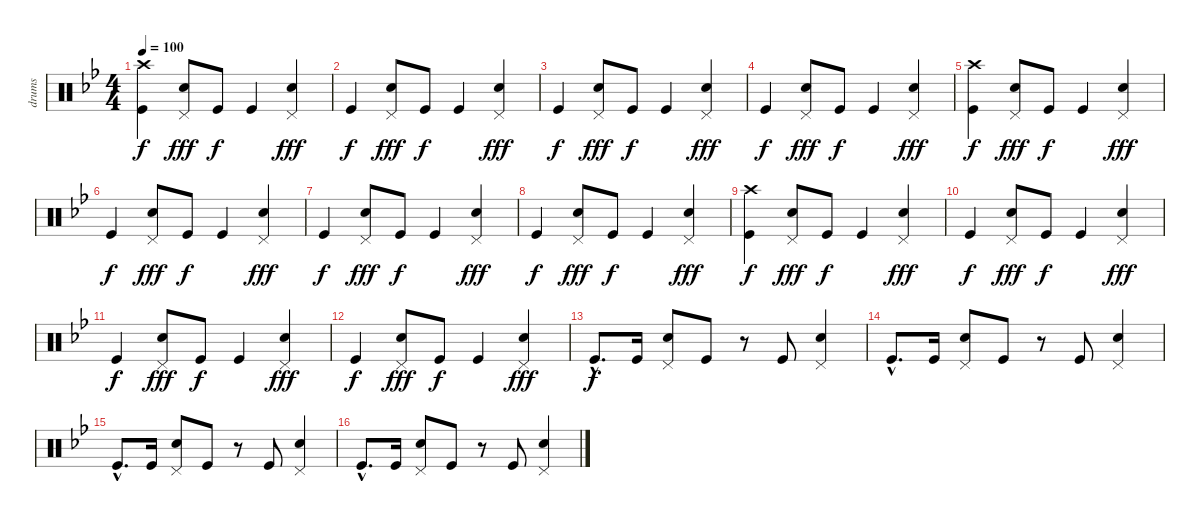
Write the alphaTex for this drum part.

\track ("drums" "drums") {instrument percussion}
\staff {score}
\articulation defaults
\ts (4 4)
\tempo 100
\clef neutral
\ks gminor
("Crash high (hit)" "Kick (hit)").4{dy f} ("Pedal Hi-Hat (hit)" "Electric Snare (hit)").8{dy fff} "Kick (hit)".8{dy f} "Kick (hit)".4 ("Pedal Hi-Hat (hit)" "Electric Snare (hit)").4{dy fff} |
"Kick (hit)".4{dy f} ("Pedal Hi-Hat (hit)" "Electric Snare (hit)").8{dy fff} "Kick (hit)".8{dy f} "Kick (hit)".4 ("Pedal Hi-Hat (hit)" "Electric Snare (hit)").4{dy fff} |
"Kick (hit)".4{dy f} ("Pedal Hi-Hat (hit)" "Electric Snare (hit)").8{dy fff} "Kick (hit)".8{dy f} "Kick (hit)".4 ("Pedal Hi-Hat (hit)" "Electric Snare (hit)").4{dy fff} |
"Kick (hit)".4{dy f} ("Pedal Hi-Hat (hit)" "Electric Snare (hit)").8{dy fff} "Kick (hit)".8{dy f} "Kick (hit)".4 ("Pedal Hi-Hat (hit)" "Electric Snare (hit)").4{dy fff} |
("Crash high (hit)" "Kick (hit)").4{dy f} ("Pedal Hi-Hat (hit)" "Electric Snare (hit)").8{dy fff} "Kick (hit)".8{dy f} "Kick (hit)".4 ("Pedal Hi-Hat (hit)" "Electric Snare (hit)").4{dy fff} |
"Kick (hit)".4{dy f} ("Pedal Hi-Hat (hit)" "Electric Snare (hit)").8{dy fff} "Kick (hit)".8{dy f} "Kick (hit)".4 ("Pedal Hi-Hat (hit)" "Electric Snare (hit)").4{dy fff} |
"Kick (hit)".4{dy f} ("Pedal Hi-Hat (hit)" "Electric Snare (hit)").8{dy fff} "Kick (hit)".8{dy f} "Kick (hit)".4 ("Pedal Hi-Hat (hit)" "Electric Snare (hit)").4{dy fff} |
"Kick (hit)".4{dy f} ("Pedal Hi-Hat (hit)" "Electric Snare (hit)").8{dy fff} "Kick (hit)".8{dy f} "Kick (hit)".4 ("Pedal Hi-Hat (hit)" "Electric Snare (hit)").4{dy fff} |
("Crash high (hit)" "Kick (hit)").4{dy f} ("Pedal Hi-Hat (hit)" "Electric Snare (hit)").8{dy fff} "Kick (hit)".8{dy f} "Kick (hit)".4 ("Pedal Hi-Hat (hit)" "Electric Snare (hit)").4{dy fff} |
"Kick (hit)".4{dy f} ("Pedal Hi-Hat (hit)" "Electric Snare (hit)").8{dy fff} "Kick (hit)".8{dy f} "Kick (hit)".4 ("Pedal Hi-Hat (hit)" "Electric Snare (hit)").4{dy fff} |
"Kick (hit)".4{dy f} ("Pedal Hi-Hat (hit)" "Electric Snare (hit)").8{dy fff} "Kick (hit)".8{dy f} "Kick (hit)".4 ("Pedal Hi-Hat (hit)" "Electric Snare (hit)").4{dy fff} |
"Kick (hit)".4{dy f} ("Pedal Hi-Hat (hit)" "Electric Snare (hit)").8{dy fff} "Kick (hit)".8{dy f} "Kick (hit)".4 ("Pedal Hi-Hat (hit)" "Electric Snare (hit)").4{dy fff} |
"Kick (hit)"{hac}.8{d dy f} "Kick (hit)".16 ("Pedal Hi-Hat (hit)" "Electric Snare (hit)").8 "Kick (hit)".8 r.8 "Kick (hit)".8 ("Pedal Hi-Hat (hit)" "Electric Snare (hit)").4 |
"Kick (hit)"{hac}.8{d} "Kick (hit)".16 ("Pedal Hi-Hat (hit)" "Electric Snare (hit)").8 "Kick (hit)".8 r.8 "Kick (hit)".8 ("Pedal Hi-Hat (hit)" "Electric Snare (hit)").4 |
"Kick (hit)"{hac}.8{d} "Kick (hit)".16 ("Pedal Hi-Hat (hit)" "Electric Snare (hit)").8 "Kick (hit)".8 r.8 "Kick (hit)".8 ("Pedal Hi-Hat (hit)" "Electric Snare (hit)").4 |
"Kick (hit)"{hac}.8{d} "Kick (hit)".16 ("Pedal Hi-Hat (hit)" "Electric Snare (hit)").8 "Kick (hit)".8 r.8 "Kick (hit)".8 ("Pedal Hi-Hat (hit)" "Electric Snare (hit)").4
